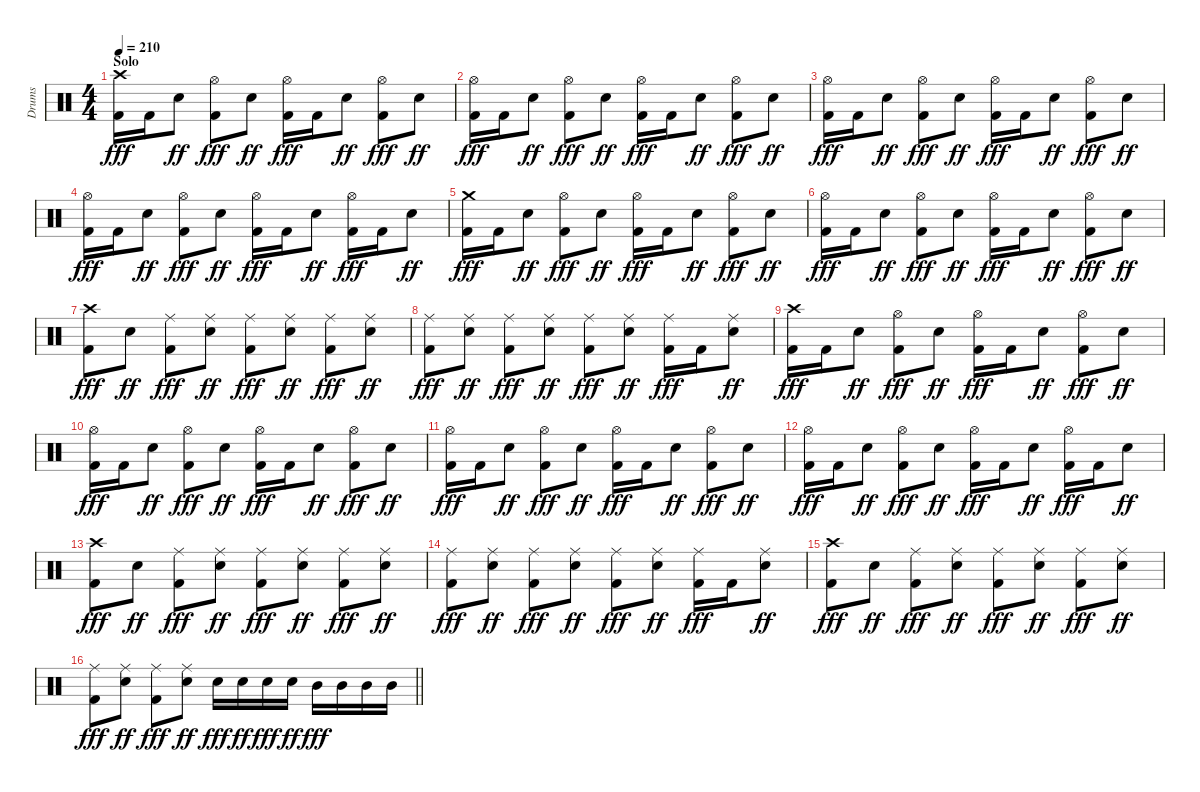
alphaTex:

\track ("Drums" "Drums") {instrument percussion}
\staff {score}
\articulation defaults
\ts (4 4)
\section ("" "Solo")
\tempo 210
\clef neutral
\ks c
("Crash high (hit)" "Kick (hit) 2").16{dy fff} "Kick (hit) 2".16 "Snare (hit) 2".8{dy ff} ("Hi-Hat (open)" "Kick (hit) 2").8{dy fff} "Snare (hit) 2".8{dy ff} ("Hi-Hat (open)" "Kick (hit) 2").16{dy fff} "Kick (hit) 2".16 "Snare (hit) 2".8{dy ff} ("Hi-Hat (open)" "Kick (hit) 2").8{dy fff} "Snare (hit) 2".8{dy ff} |
("Hi-Hat (open)" "Kick (hit) 2").16{dy fff} "Kick (hit) 2".16 "Snare (hit) 2".8{dy ff} ("Hi-Hat (open)" "Kick (hit) 2").8{dy fff} "Snare (hit) 2".8{dy ff} ("Hi-Hat (open)" "Kick (hit) 2").16{dy fff} "Kick (hit) 2".16 "Snare (hit) 2".8{dy ff} ("Hi-Hat (open)" "Kick (hit) 2").8{dy fff} "Snare (hit) 2".8{dy ff} |
("Hi-Hat (open)" "Kick (hit) 2").16{dy fff} "Kick (hit) 2".16 "Snare (hit) 2".8{dy ff} ("Hi-Hat (open)" "Kick (hit) 2").8{dy fff} "Snare (hit) 2".8{dy ff} ("Hi-Hat (open)" "Kick (hit) 2").16{dy fff} "Kick (hit) 2".16 "Snare (hit) 2".8{dy ff} ("Hi-Hat (open)" "Kick (hit) 2").8{dy fff} "Snare (hit) 2".8{dy ff} |
("Hi-Hat (open)" "Kick (hit) 2").16{dy fff} "Kick (hit) 2".16 "Snare (hit) 2".8{dy ff} ("Hi-Hat (open)" "Kick (hit) 2").8{dy fff} "Snare (hit) 2".8{dy ff} ("Hi-Hat (open)" "Kick (hit) 2").16{dy fff} "Kick (hit) 2".16 "Snare (hit) 2".8{dy ff} ("Hi-Hat (open)" "Kick (hit) 2").16{dy fff} "Kick (hit) 2".16 "Snare (hit) 2".8{dy ff} |
("Crash medium (hit)" "Kick (hit) 2").16{dy fff} "Kick (hit) 2".16 "Snare (hit) 2".8{dy ff} ("Hi-Hat (open)" "Kick (hit) 2").8{dy fff} "Snare (hit) 2".8{dy ff} ("Hi-Hat (open)" "Kick (hit) 2").16{dy fff} "Kick (hit) 2".16 "Snare (hit) 2".8{dy ff} ("Hi-Hat (open)" "Kick (hit) 2").8{dy fff} "Snare (hit) 2".8{dy ff} |
("Hi-Hat (open)" "Kick (hit) 2").16{dy fff} "Kick (hit) 2".16 "Snare (hit) 2".8{dy ff} ("Hi-Hat (open)" "Kick (hit) 2").8{dy fff} "Snare (hit) 2".8{dy ff} ("Hi-Hat (open)" "Kick (hit) 2").16{dy fff} "Kick (hit) 2".16 "Snare (hit) 2".8{dy ff} ("Hi-Hat (open)" "Kick (hit) 2").8{dy fff} "Snare (hit) 2".8{dy ff} |
("Crash high (hit)" "Kick (hit) 2").8{dy fff} "Snare (hit) 2".8{dy ff} ("Ride (middle)" "Kick (hit) 2").8{dy fff} ("Ride (middle)" "Snare (hit) 2").8{dy ff} ("Ride (middle)" "Kick (hit) 2").8{dy fff} ("Ride (middle)" "Snare (hit) 2").8{dy ff} ("Ride (middle)" "Kick (hit) 2").8{dy fff} ("Ride (middle)" "Snare (hit) 2").8{dy ff} |
("Ride (middle)" "Kick (hit) 2").8{dy fff} ("Ride (middle)" "Snare (hit) 2").8{dy ff} ("Ride (middle)" "Kick (hit) 2").8{dy fff} ("Ride (middle)" "Snare (hit) 2").8{dy ff} ("Ride (middle)" "Kick (hit) 2").8{dy fff} ("Ride (middle)" "Snare (hit) 2").8{dy ff} ("Ride (middle)" "Kick (hit) 2").16{dy fff} "Kick (hit) 2".16 ("Ride (middle)" "Snare (hit) 2").8{dy ff} |
("Crash high (hit)" "Kick (hit) 2").16{dy fff} "Kick (hit) 2".16 "Snare (hit) 2".8{dy ff} ("Hi-Hat (open)" "Kick (hit) 2").8{dy fff} "Snare (hit) 2".8{dy ff} ("Hi-Hat (open)" "Kick (hit) 2").16{dy fff} "Kick (hit) 2".16 "Snare (hit) 2".8{dy ff} ("Hi-Hat (open)" "Kick (hit) 2").8{dy fff} "Snare (hit) 2".8{dy ff} |
("Hi-Hat (open)" "Kick (hit) 2").16{dy fff} "Kick (hit) 2".16 "Snare (hit) 2".8{dy ff} ("Hi-Hat (open)" "Kick (hit) 2").8{dy fff} "Snare (hit) 2".8{dy ff} ("Hi-Hat (open)" "Kick (hit) 2").16{dy fff} "Kick (hit) 2".16 "Snare (hit) 2".8{dy ff} ("Hi-Hat (open)" "Kick (hit) 2").8{dy fff} "Snare (hit) 2".8{dy ff} |
("Hi-Hat (open)" "Kick (hit) 2").16{dy fff} "Kick (hit) 2".16 "Snare (hit) 2".8{dy ff} ("Hi-Hat (open)" "Kick (hit) 2").8{dy fff} "Snare (hit) 2".8{dy ff} ("Hi-Hat (open)" "Kick (hit) 2").16{dy fff} "Kick (hit) 2".16 "Snare (hit) 2".8{dy ff} ("Hi-Hat (open)" "Kick (hit) 2").8{dy fff} "Snare (hit) 2".8{dy ff} |
("Hi-Hat (open)" "Kick (hit) 2").16{dy fff} "Kick (hit) 2".16 "Snare (hit) 2".8{dy ff} ("Hi-Hat (open)" "Kick (hit) 2").8{dy fff} "Snare (hit) 2".8{dy ff} ("Hi-Hat (open)" "Kick (hit) 2").16{dy fff} "Kick (hit) 2".16 "Snare (hit) 2".8{dy ff} ("Hi-Hat (open)" "Kick (hit) 2").16{dy fff} "Kick (hit) 2".16 "Snare (hit) 2".8{dy ff} |
("Crash high (hit)" "Kick (hit) 2").8{dy fff} "Snare (hit) 2".8{dy ff} ("Ride (middle)" "Kick (hit) 2").8{dy fff} ("Ride (middle)" "Snare (hit) 2").8{dy ff} ("Ride (middle)" "Kick (hit) 2").8{dy fff} ("Ride (middle)" "Snare (hit) 2").8{dy ff} ("Ride (middle)" "Kick (hit) 2").8{dy fff} ("Ride (middle)" "Snare (hit) 2").8{dy ff} |
("Ride (middle)" "Kick (hit) 2").8{dy fff} ("Ride (middle)" "Snare (hit) 2").8{dy ff} ("Ride (middle)" "Kick (hit) 2").8{dy fff} ("Ride (middle)" "Snare (hit) 2").8{dy ff} ("Ride (middle)" "Kick (hit) 2").8{dy fff} ("Ride (middle)" "Snare (hit) 2").8{dy ff} ("Ride (middle)" "Kick (hit) 2").16{dy fff} "Kick (hit) 2".16 ("Ride (middle)" "Snare (hit) 2").8{dy ff} |
("Crash high (hit)" "Kick (hit) 2").8{dy fff} "Snare (hit) 2".8{dy ff} ("Ride (middle)" "Kick (hit) 2").8{dy fff} ("Ride (middle)" "Snare (hit) 2").8{dy ff} ("Ride (middle)" "Kick (hit) 2").8{dy fff} ("Ride (middle)" "Snare (hit) 2").8{dy ff} ("Ride (middle)" "Kick (hit) 2").8{dy fff} ("Ride (middle)" "Snare (hit) 2").8{dy ff} |
\barLineRight lightlight
("Ride (middle)" "Kick (hit) 2").8{dy fff} ("Ride (middle)" "Snare (hit) 2").8{dy ff} ("Ride (middle)" "Kick (hit) 2").8{dy fff} ("Ride (middle)" "Snare (hit) 2").8{dy ff} "Snare (hit) 2".16{dy fff} "Snare (hit) 2".16{dy ff} "Snare (hit) 2".16{dy fff} "Snare (hit) 2".16{dy ff} "Mid Tom (hit)".16{dy fff} "Mid Tom (hit)".16 "Mid Tom (hit)".16 "Mid Tom (hit)".16
